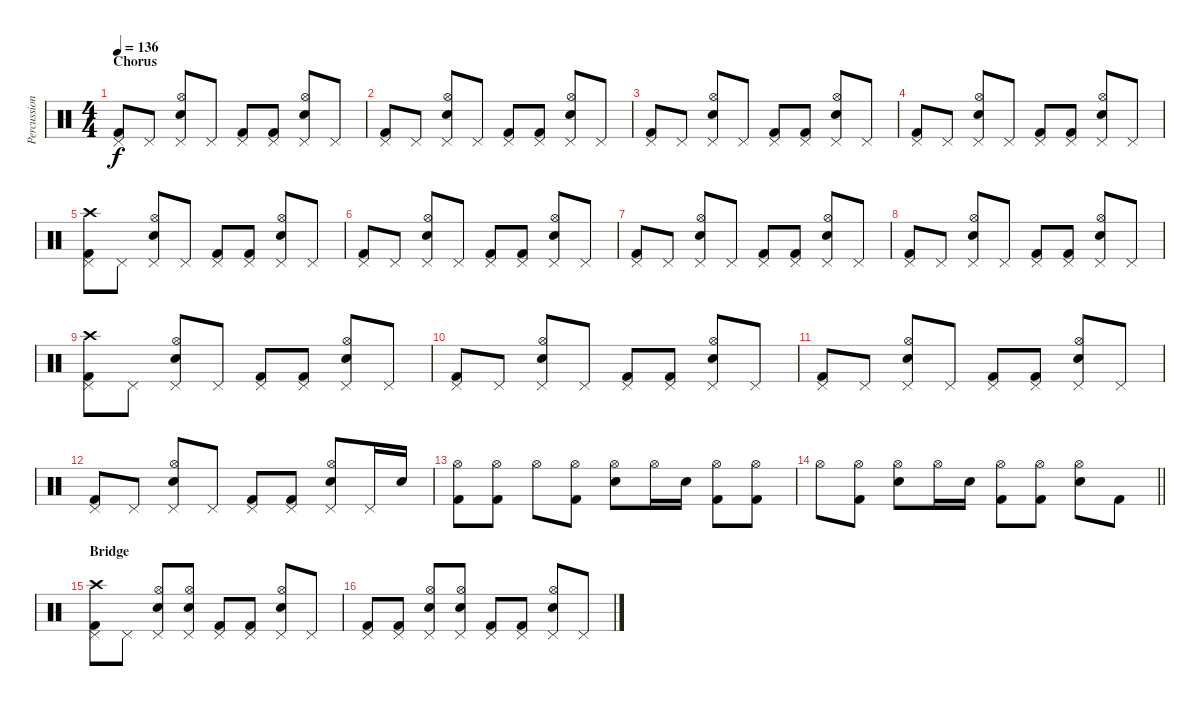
\track ("Percussion" "Percussion") {instrument percussion}
\staff {score}
\articulation defaults
\ts (4 4)
\section ("" "Chorus")
\tempo 136
\clef neutral
\ks c
("Pedal Hi-Hat (hit)" "Kick (hit) 2").8{dy f} "Pedal Hi-Hat (hit)".8 ("Hi-Hat (open)" "Pedal Hi-Hat (hit)" "Snare (hit) 2").8 "Pedal Hi-Hat (hit)".8 ("Pedal Hi-Hat (hit)" "Kick (hit) 2").8 ("Pedal Hi-Hat (hit)" "Kick (hit) 2").8 ("Hi-Hat (open)" "Pedal Hi-Hat (hit)" "Snare (hit) 2").8 "Pedal Hi-Hat (hit)".8 |
("Pedal Hi-Hat (hit)" "Kick (hit) 2").8 "Pedal Hi-Hat (hit)".8 ("Hi-Hat (open)" "Pedal Hi-Hat (hit)" "Snare (hit) 2").8 "Pedal Hi-Hat (hit)".8 ("Pedal Hi-Hat (hit)" "Kick (hit) 2").8 ("Pedal Hi-Hat (hit)" "Kick (hit) 2").8 ("Hi-Hat (open)" "Pedal Hi-Hat (hit)" "Snare (hit) 2").8 "Pedal Hi-Hat (hit)".8 |
("Pedal Hi-Hat (hit)" "Kick (hit) 2").8 "Pedal Hi-Hat (hit)".8 ("Hi-Hat (open)" "Pedal Hi-Hat (hit)" "Snare (hit) 2").8 "Pedal Hi-Hat (hit)".8 ("Pedal Hi-Hat (hit)" "Kick (hit) 2").8 ("Pedal Hi-Hat (hit)" "Kick (hit) 2").8 ("Hi-Hat (open)" "Pedal Hi-Hat (hit)" "Snare (hit) 2").8 "Pedal Hi-Hat (hit)".8 |
("Pedal Hi-Hat (hit)" "Kick (hit) 2").8 "Pedal Hi-Hat (hit)".8 ("Hi-Hat (open)" "Pedal Hi-Hat (hit)" "Snare (hit) 2").8 "Pedal Hi-Hat (hit)".8 ("Pedal Hi-Hat (hit)" "Kick (hit) 2").8 ("Pedal Hi-Hat (hit)" "Kick (hit) 2").8 ("Hi-Hat (open)" "Pedal Hi-Hat (hit)" "Snare (hit) 2").8 "Pedal Hi-Hat (hit)".8 |
("Crash high (hit)" "Pedal Hi-Hat (hit)" "Kick (hit) 2").8 "Pedal Hi-Hat (hit)".8 ("Hi-Hat (open)" "Pedal Hi-Hat (hit)" "Snare (hit) 2").8 "Pedal Hi-Hat (hit)".8 ("Pedal Hi-Hat (hit)" "Kick (hit) 2").8 ("Pedal Hi-Hat (hit)" "Kick (hit) 2").8 ("Hi-Hat (open)" "Pedal Hi-Hat (hit)" "Snare (hit) 2").8 "Pedal Hi-Hat (hit)".8 |
("Pedal Hi-Hat (hit)" "Kick (hit) 2").8 "Pedal Hi-Hat (hit)".8 ("Hi-Hat (open)" "Pedal Hi-Hat (hit)" "Snare (hit) 2").8 "Pedal Hi-Hat (hit)".8 ("Pedal Hi-Hat (hit)" "Kick (hit) 2").8 ("Pedal Hi-Hat (hit)" "Kick (hit) 2").8 ("Hi-Hat (open)" "Pedal Hi-Hat (hit)" "Snare (hit) 2").8 "Pedal Hi-Hat (hit)".8 |
("Pedal Hi-Hat (hit)" "Kick (hit) 2").8 "Pedal Hi-Hat (hit)".8 ("Hi-Hat (open)" "Pedal Hi-Hat (hit)" "Snare (hit) 2").8 "Pedal Hi-Hat (hit)".8 ("Pedal Hi-Hat (hit)" "Kick (hit) 2").8 ("Pedal Hi-Hat (hit)" "Kick (hit) 2").8 ("Hi-Hat (open)" "Pedal Hi-Hat (hit)" "Snare (hit) 2").8 "Pedal Hi-Hat (hit)".8 |
("Pedal Hi-Hat (hit)" "Kick (hit) 2").8 "Pedal Hi-Hat (hit)".8 ("Hi-Hat (open)" "Pedal Hi-Hat (hit)" "Snare (hit) 2").8 "Pedal Hi-Hat (hit)".8 ("Pedal Hi-Hat (hit)" "Kick (hit) 2").8 ("Pedal Hi-Hat (hit)" "Kick (hit) 2").8 ("Hi-Hat (open)" "Pedal Hi-Hat (hit)" "Snare (hit) 2").8 "Pedal Hi-Hat (hit)".8 |
("Crash high (hit)" "Pedal Hi-Hat (hit)" "Kick (hit) 2").8 "Pedal Hi-Hat (hit)".8 ("Hi-Hat (open)" "Pedal Hi-Hat (hit)" "Snare (hit) 2").8 "Pedal Hi-Hat (hit)".8 ("Pedal Hi-Hat (hit)" "Kick (hit) 2").8 ("Pedal Hi-Hat (hit)" "Kick (hit) 2").8 ("Hi-Hat (open)" "Pedal Hi-Hat (hit)" "Snare (hit) 2").8 "Pedal Hi-Hat (hit)".8 |
("Pedal Hi-Hat (hit)" "Kick (hit) 2").8 "Pedal Hi-Hat (hit)".8 ("Hi-Hat (open)" "Pedal Hi-Hat (hit)" "Snare (hit) 2").8 "Pedal Hi-Hat (hit)".8 ("Pedal Hi-Hat (hit)" "Kick (hit) 2").8 ("Pedal Hi-Hat (hit)" "Kick (hit) 2").8 ("Hi-Hat (open)" "Pedal Hi-Hat (hit)" "Snare (hit) 2").8 "Pedal Hi-Hat (hit)".8 |
("Pedal Hi-Hat (hit)" "Kick (hit) 2").8 "Pedal Hi-Hat (hit)".8 ("Hi-Hat (open)" "Pedal Hi-Hat (hit)" "Snare (hit) 2").8 "Pedal Hi-Hat (hit)".8 ("Pedal Hi-Hat (hit)" "Kick (hit) 2").8 ("Pedal Hi-Hat (hit)" "Kick (hit) 2").8 ("Hi-Hat (open)" "Pedal Hi-Hat (hit)" "Snare (hit) 2").8 "Pedal Hi-Hat (hit)".8 |
("Pedal Hi-Hat (hit)" "Kick (hit) 2").8 "Pedal Hi-Hat (hit)".8 ("Hi-Hat (open)" "Pedal Hi-Hat (hit)" "Snare (hit) 2").8 "Pedal Hi-Hat (hit)".8 ("Pedal Hi-Hat (hit)" "Kick (hit) 2").8 ("Pedal Hi-Hat (hit)" "Kick (hit) 2").8 ("Hi-Hat (open)" "Pedal Hi-Hat (hit)" "Snare (hit) 2").8 "Pedal Hi-Hat (hit)".16 "Snare (hit) 2".16 |
("Hi-Hat (open)" "Kick (hit) 2").8 ("Hi-Hat (open)" "Kick (hit) 2").8 "Hi-Hat (open)".8 ("Hi-Hat (open)" "Kick (hit) 2").8 ("Hi-Hat (open)" "Snare (hit) 2").8 "Hi-Hat (open)".16 "Snare (hit) 2".16 ("Hi-Hat (open)" "Kick (hit) 2").8 ("Hi-Hat (open)" "Kick (hit) 2").8 |
\barLineRight lightlight "Hi-Hat (open)".8
("Hi-Hat (open)" "Kick (hit) 2").8 ("Hi-Hat (open)" "Snare (hit) 2").8 "Hi-Hat (open)".16 "Snare (hit) 2".16 ("Hi-Hat (open)" "Kick (hit) 2").8 ("Hi-Hat (open)" "Kick (hit) 2").8 ("Hi-Hat (open)" "Snare (hit) 2").8 "Kick (hit) 2".8 |
\section ("" "Bridge")
("Crash high (hit)" "Pedal Hi-Hat (hit)" "Kick (hit) 2").8 "Pedal Hi-Hat (hit)".8 ("Hi-Hat (open)" "Pedal Hi-Hat (hit)" "Snare (hit) 2").8 ("Hi-Hat (open)" "Pedal Hi-Hat (hit)" "Snare (hit) 2").8 ("Pedal Hi-Hat (hit)" "Kick (hit) 2").8 ("Pedal Hi-Hat (hit)" "Kick (hit) 2").8 ("Hi-Hat (open)" "Pedal Hi-Hat (hit)" "Snare (hit) 2").8 "Pedal Hi-Hat (hit)".8 |
("Pedal Hi-Hat (hit)" "Kick (hit) 2").8 ("Pedal Hi-Hat (hit)" "Kick (hit) 2").8 ("Hi-Hat (open)" "Pedal Hi-Hat (hit)" "Snare (hit) 2").8 ("Hi-Hat (open)" "Pedal Hi-Hat (hit)" "Snare (hit) 2").8 ("Pedal Hi-Hat (hit)" "Kick (hit) 2").8 ("Pedal Hi-Hat (hit)" "Kick (hit) 2").8 ("Hi-Hat (open)" "Pedal Hi-Hat (hit)" "Snare (hit) 2").8 "Pedal Hi-Hat (hit)".8
